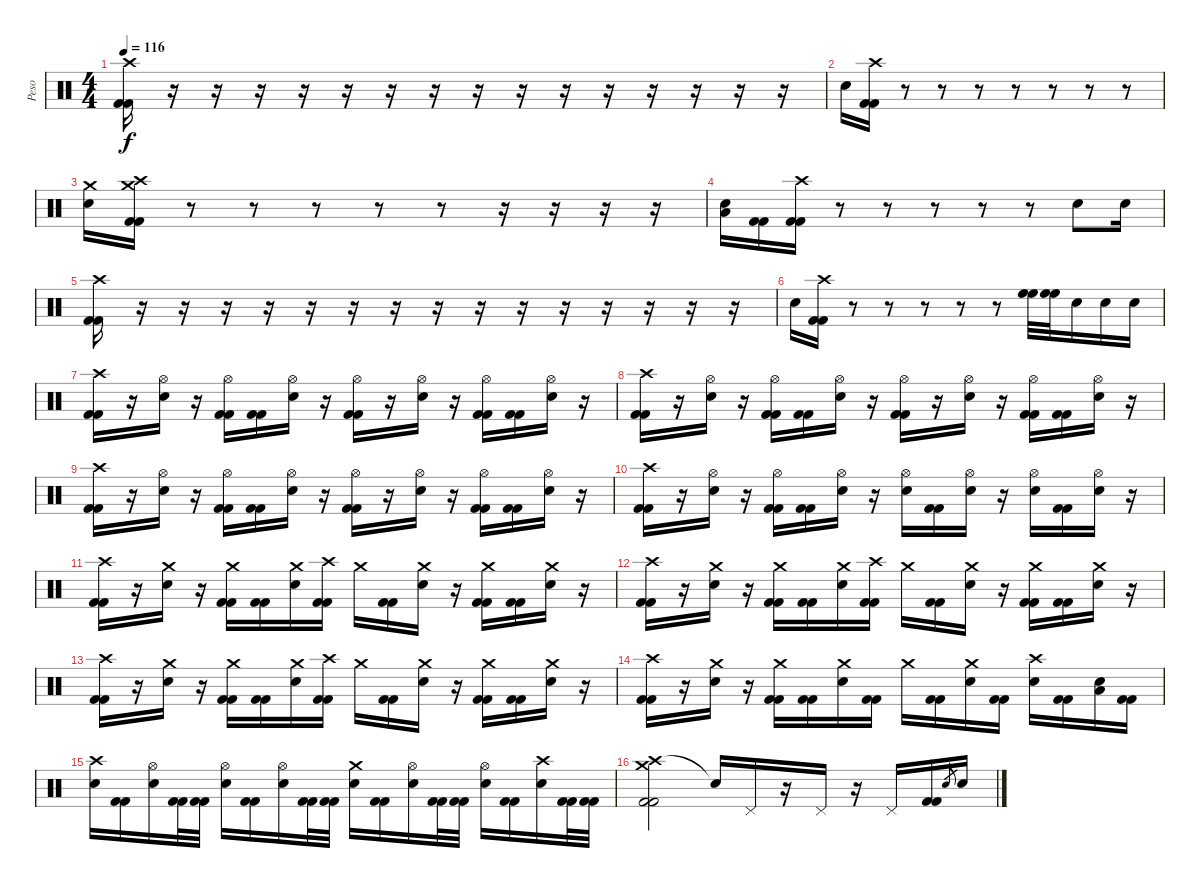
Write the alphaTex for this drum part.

\track ("Peso" "Peso") {instrument percussion}
\staff {score}
\articulation defaults
\ts (4 4)
\tempo 116
\clef neutral
\ks c
("Crash high (hit)" "Kick (hit) 2" "Kick (hit) 2").16{dy f} r.16 r.16 r.16 r.16 r.16 r.16 r.16 r.16 r.16 r.16 r.16 r.16 r.16 r.16 r.16 |
"Snare (hit) 2".16 ("Crash high (hit)" "Kick (hit) 2" "Kick (hit) 2").16 r.8 r.8 r.8 r.8 r.8 r.8 r.8 |
("Crash medium (hit)" "Snare (hit) 2").16 ("Crash high (hit)" "Crash medium (hit)" "Kick (hit) 2" "Kick (hit) 2").16 r.8 r.8 r.8 r.8 r.8 r.16 r.16 r.16 r.16 |
("Low Floor Tom (hit)" "Snare (hit) 2").16 ("Kick (hit) 2" "Kick (hit) 2").16 ("Crash high (hit)" "Kick (hit) 2" "Kick (hit) 2").16 r.8 r.8 r.8 r.8 r.8 "Snare (hit) 2".8 "Snare (hit) 2".16 |
("Crash high (hit)" "Kick (hit) 2" "Kick (hit) 2").16 r.16 r.16 r.16 r.16 r.16 r.16 r.16 r.16 r.16 r.16 r.16 r.16 r.16 r.16 r.16 |
"Snare (hit) 2".16 ("Crash high (hit)" "Kick (hit) 2" "Kick (hit) 2").16 r.8 r.8 r.8 r.8 r.8 ("High Floor Tom (hit)" "High Floor Tom (hit)").32{volume 16} ("High Floor Tom (hit)" "High Floor Tom (hit)").32 "Snare (hit) 2".16{volume 15} "Snare (hit) 2".16 "Snare (hit) 2".16 |
("Crash high (hit)" "Kick (hit) 2" "Kick (hit) 2").16 r.16 ("Hi-Hat (open)" "Snare (hit) 2").16 r.16 ("Hi-Hat (open)" "Kick (hit) 2" "Kick (hit) 2").16 ("Kick (hit) 2" "Kick (hit) 2").16 ("Hi-Hat (open)" "Snare (hit) 2").16 r.16 ("Hi-Hat (open)" "Kick (hit) 2" "Kick (hit) 2").16 r.16 ("Hi-Hat (open)" "Snare (hit) 2").16 r.16 ("Hi-Hat (open)" "Kick (hit) 2" "Kick (hit) 2").16 ("Kick (hit) 2" "Kick (hit) 2").16 ("Hi-Hat (open)" "Snare (hit) 2").16 r.16 |
("Crash high (hit)" "Kick (hit) 2" "Kick (hit) 2").16 r.16 ("Hi-Hat (open)" "Snare (hit) 2").16 r.16 ("Hi-Hat (open)" "Kick (hit) 2" "Kick (hit) 2").16 ("Kick (hit) 2" "Kick (hit) 2").16 ("Hi-Hat (open)" "Snare (hit) 2").16 r.16 ("Hi-Hat (open)" "Kick (hit) 2" "Kick (hit) 2").16 r.16 ("Hi-Hat (open)" "Snare (hit) 2").16 r.16 ("Hi-Hat (open)" "Kick (hit) 2" "Kick (hit) 2").16 ("Kick (hit) 2" "Kick (hit) 2").16 ("Hi-Hat (open)" "Snare (hit) 2").16 r.16 |
("Crash high (hit)" "Kick (hit) 2" "Kick (hit) 2").16 r.16 ("Hi-Hat (open)" "Snare (hit) 2").16 r.16 ("Hi-Hat (open)" "Kick (hit) 2" "Kick (hit) 2").16 ("Kick (hit) 2" "Kick (hit) 2").16 ("Hi-Hat (open)" "Snare (hit) 2").16 r.16 ("Hi-Hat (open)" "Kick (hit) 2" "Kick (hit) 2").16 r.16 ("Hi-Hat (open)" "Snare (hit) 2").16 r.16 ("Hi-Hat (open)" "Kick (hit) 2" "Kick (hit) 2").16 ("Kick (hit) 2" "Kick (hit) 2").16 ("Hi-Hat (open)" "Snare (hit) 2").16 r.16 |
("Crash high (hit)" "Kick (hit) 2" "Kick (hit) 2").16 r.16 ("Hi-Hat (open)" "Snare (hit) 2").16 r.16 ("Hi-Hat (open)" "Kick (hit) 2" "Kick (hit) 2").16 ("Kick (hit) 2" "Kick (hit) 2").16 ("Hi-Hat (open)" "Snare (hit) 2").16 r.16 ("Hi-Hat (open)" "Snare (hit) 2").16 ("Kick (hit) 2" "Kick (hit) 2").16 ("Hi-Hat (open)" "Snare (hit) 2").16 r.16 ("Hi-Hat (open)" "Snare (hit) 2").16 ("Kick (hit) 2" "Kick (hit) 2").16 ("Hi-Hat (open)" "Snare (hit) 2").16 r.16 |
("Crash high (hit)" "Kick (hit) 2" "Kick (hit) 2").16 r.16 ("Crash medium (hit)" "Snare (hit) 2").16 r.16 ("Crash medium (hit)" "Kick (hit) 2" "Kick (hit) 2").16 ("Kick (hit) 2" "Kick (hit) 2").16 ("Crash medium (hit)" "Snare (hit) 2").16 ("Crash high (hit)" "Kick (hit) 2" "Kick (hit) 2").16 "Crash medium (hit)".16 ("Kick (hit) 2" "Kick (hit) 2").16 ("Crash medium (hit)" "Snare (hit) 2").16 r.16 ("Crash medium (hit)" "Kick (hit) 2" "Kick (hit) 2").16 ("Kick (hit) 2" "Kick (hit) 2").16 ("Crash medium (hit)" "Snare (hit) 2").16 r.16 |
("Crash high (hit)" "Kick (hit) 2" "Kick (hit) 2").16 r.16 ("Crash medium (hit)" "Snare (hit) 2").16 r.16 ("Crash medium (hit)" "Kick (hit) 2" "Kick (hit) 2").16 ("Kick (hit) 2" "Kick (hit) 2").16 ("Crash medium (hit)" "Snare (hit) 2").16 ("Crash high (hit)" "Kick (hit) 2" "Kick (hit) 2").16 "Crash medium (hit)".16 ("Kick (hit) 2" "Kick (hit) 2").16 ("Crash medium (hit)" "Snare (hit) 2").16 r.16 ("Crash medium (hit)" "Kick (hit) 2" "Kick (hit) 2").16 ("Kick (hit) 2" "Kick (hit) 2").16 ("Crash medium (hit)" "Snare (hit) 2").16 r.16 |
("Crash high (hit)" "Kick (hit) 2" "Kick (hit) 2").16 r.16 ("Crash medium (hit)" "Snare (hit) 2").16 r.16 ("Crash medium (hit)" "Kick (hit) 2" "Kick (hit) 2").16 ("Kick (hit) 2" "Kick (hit) 2").16 ("Crash medium (hit)" "Snare (hit) 2").16 ("Crash high (hit)" "Kick (hit) 2" "Kick (hit) 2").16 "Crash medium (hit)".16 ("Kick (hit) 2" "Kick (hit) 2").16 ("Crash medium (hit)" "Snare (hit) 2").16 r.16 ("Crash medium (hit)" "Kick (hit) 2" "Kick (hit) 2").16 ("Kick (hit) 2" "Kick (hit) 2").16 ("Crash medium (hit)" "Snare (hit) 2").16 r.16 |
("Crash high (hit)" "Kick (hit) 2" "Kick (hit) 2").16 r.16 ("Crash medium (hit)" "Snare (hit) 2").16 r.16 ("Crash medium (hit)" "Kick (hit) 2" "Kick (hit) 2").16 ("Kick (hit) 2" "Kick (hit) 2").16 ("Crash medium (hit)" "Snare (hit) 2").16 ("Kick (hit) 2" "Kick (hit) 2").16 "Crash medium (hit)".16 ("Kick (hit) 2" "Kick (hit) 2").16 ("Crash medium (hit)" "Snare (hit) 2").16 ("Kick (hit) 2" "Kick (hit) 2").16 ("Crash high (hit)" "Snare (hit) 2").16 ("Kick (hit) 2" "Kick (hit) 2").16 ("Low Floor Tom (hit)" "Snare (hit) 2").16 ("Kick (hit) 2" "Kick (hit) 2").16 |
("Crash high (hit)" "Snare (hit) 2").16 ("Kick (hit) 2" "Kick (hit) 2").16 ("Hi-Hat (open)" "Snare (hit) 2").16 ("Kick (hit) 2" "Kick (hit) 2").32 ("Kick (hit) 2" "Kick (hit) 2").32 ("Hi-Hat (open)" "Snare (hit) 2").16 ("Kick (hit) 2" "Kick (hit) 2").16 ("Hi-Hat (open)" "Snare (hit) 2").16 ("Kick (hit) 2" "Kick (hit) 2").32 ("Kick (hit) 2" "Kick (hit) 2").32 ("Crash medium (hit)" "Snare (hit) 2").16 ("Kick (hit) 2" "Kick (hit) 2").16 ("Hi-Hat (open)" "Snare (hit) 2").16 ("Kick (hit) 2" "Kick (hit) 2").32 ("Kick (hit) 2" "Kick (hit) 2").32 ("Hi-Hat (open)" "Snare (hit) 2").16 ("Kick (hit) 2" "Kick (hit) 2").16 ("Crash high (hit)" "Snare (hit) 2").16 ("Kick (hit) 2" "Kick (hit) 2").32 ("Kick (hit) 2" "Kick (hit) 2").32 |
("Crash high (hit)" "Crash medium (hit)" "Kick (hit) 2" "Kick (hit) 2").2 "Snare (hit)"{t}.16 "Pedal Hi-Hat (hit)".16 r.16 "Pedal Hi-Hat (hit)".16 r.16 "Pedal Hi-Hat (hit)".16 ("Kick (hit) 2" "Kick (hit) 2").16 "Snare (hit) 2".8{gr} "Snare (hit) 2".16
